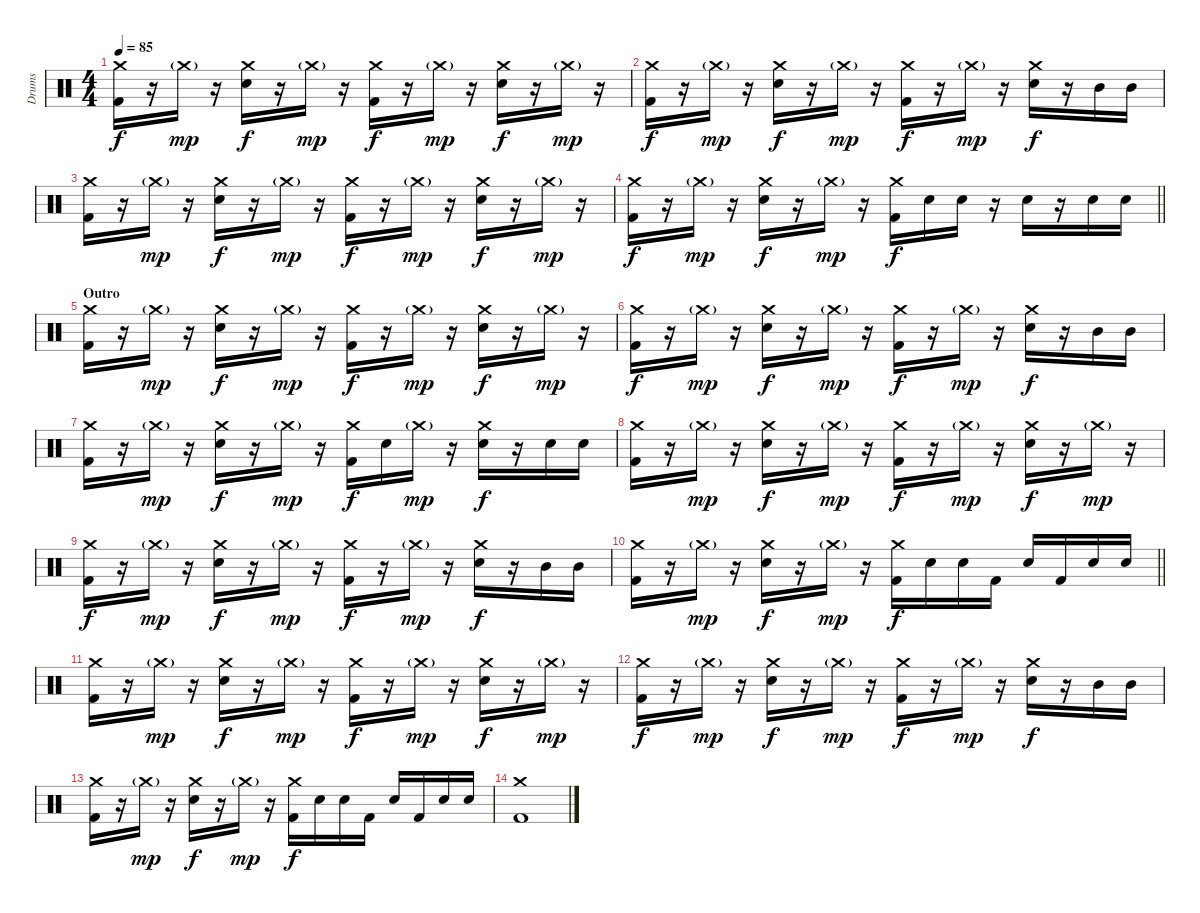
\track ("Drums" "Drums") {instrument percussion}
\staff {score}
\articulation defaults
\ts (4 4)
\tempo 85
\clef neutral
\ks c
("Kick (hit) 2" "Crash medium (hit)").16{dy f} r.16 "Crash medium (hit)"{g}.16{dy mp} r.16 ("Electric Snare (hit)" "Crash medium (hit)").16{dy f} r.16 "Crash medium (hit)"{g}.16{dy mp} r.16 ("Kick (hit) 2" "Crash medium (hit)").16{dy f} r.16 "Crash medium (hit)"{g}.16{dy mp} r.16 ("Electric Snare (hit)" "Crash medium (hit)").16{dy f} r.16 "Crash medium (hit)"{g}.16{dy mp} r.16 |
("Kick (hit) 2" "Crash medium (hit)").16{dy f} r.16 "Crash medium (hit)"{g}.16{dy mp} r.16 ("Electric Snare (hit)" "Crash medium (hit)").16{dy f} r.16 "Crash medium (hit)"{g}.16{dy mp} r.16 ("Kick (hit) 2" "Crash medium (hit)").16{dy f} r.16 "Crash medium (hit)"{g}.16{dy mp} r.16 ("Electric Snare (hit)" "Crash medium (hit)").16{dy f} r.16 "Mid Tom (hit)".16 "Mid Tom (hit)".16 |
("Kick (hit) 2" "Crash medium (hit)").16 r.16 "Crash medium (hit)"{g}.16{dy mp} r.16 ("Electric Snare (hit)" "Crash medium (hit)").16{dy f} r.16 "Crash medium (hit)"{g}.16{dy mp} r.16 ("Kick (hit) 2" "Crash medium (hit)").16{dy f} r.16 "Crash medium (hit)"{g}.16{dy mp} r.16 ("Electric Snare (hit)" "Crash medium (hit)").16{dy f} r.16 "Crash medium (hit)"{g}.16{dy mp} r.16 |
\barLineRight lightlight
("Kick (hit) 2" "Crash medium (hit)").16{dy f} r.16 "Crash medium (hit)"{g}.16{dy mp} r.16 ("Electric Snare (hit)" "Crash medium (hit)").16{dy f} r.16 "Crash medium (hit)"{g}.16{dy mp} r.16 ("Kick (hit) 2" "Crash medium (hit)").16{dy f} "Electric Snare (hit)".16 "Electric Snare (hit)".16 r.16 "Electric Snare (hit)".16 r.16 "Electric Snare (hit)".16 "Electric Snare (hit)".16 |
\section ("" "Outro")
("Kick (hit) 2" "Crash medium (hit)").16 r.16 "Crash medium (hit)"{g}.16{dy mp} r.16 ("Electric Snare (hit)" "Crash medium (hit)").16{dy f} r.16 "Crash medium (hit)"{g}.16{dy mp} r.16 ("Kick (hit) 2" "Crash medium (hit)").16{dy f} r.16 "Crash medium (hit)"{g}.16{dy mp} r.16 ("Electric Snare (hit)" "Crash medium (hit)").16{dy f} r.16 "Crash medium (hit)"{g}.16{dy mp} r.16 |
("Kick (hit) 2" "Crash medium (hit)").16{dy f} r.16 "Crash medium (hit)"{g}.16{dy mp} r.16 ("Electric Snare (hit)" "Crash medium (hit)").16{dy f} r.16 "Crash medium (hit)"{g}.16{dy mp} r.16 ("Kick (hit) 2" "Crash medium (hit)").16{dy f} r.16 "Crash medium (hit)"{g}.16{dy mp} r.16 ("Electric Snare (hit)" "Crash medium (hit)").16{dy f} r.16 "Mid Tom (hit)".16 "Mid Tom (hit)".16 |
("Kick (hit) 2" "Crash medium (hit)").16 r.16 "Crash medium (hit)"{g}.16{dy mp} r.16 ("Electric Snare (hit)" "Crash medium (hit)").16{dy f} r.16 "Crash medium (hit)"{g}.16{dy mp} r.16 ("Kick (hit) 2" "Crash medium (hit)").16{dy f} "Electric Snare (hit)".16 "Crash medium (hit)"{g}.16{dy mp} r.16 ("Electric Snare (hit)" "Crash medium (hit)").16{dy f} r.16 "Electric Snare (hit)".16 "Electric Snare (hit)".16 |
("Kick (hit) 2" "Crash medium (hit)").16 r.16 "Crash medium (hit)"{g}.16{dy mp} r.16 ("Electric Snare (hit)" "Crash medium (hit)").16{dy f} r.16 "Crash medium (hit)"{g}.16{dy mp} r.16 ("Kick (hit) 2" "Crash medium (hit)").16{dy f} r.16 "Crash medium (hit)"{g}.16{dy mp} r.16 ("Electric Snare (hit)" "Crash medium (hit)").16{dy f} r.16 "Crash medium (hit)"{g}.16{dy mp} r.16 |
("Kick (hit) 2" "Crash medium (hit)").16{dy f} r.16 "Crash medium (hit)"{g}.16{dy mp} r.16 ("Electric Snare (hit)" "Crash medium (hit)").16{dy f} r.16 "Crash medium (hit)"{g}.16{dy mp} r.16 ("Kick (hit) 2" "Crash medium (hit)").16{dy f} r.16 "Crash medium (hit)"{g}.16{dy mp} r.16 ("Electric Snare (hit)" "Crash medium (hit)").16{dy f} r.16 "Mid Tom (hit)".16 "Mid Tom (hit)".16 |
\barLineRight lightlight
("Kick (hit) 2" "Crash medium (hit)").16 r.16 "Crash medium (hit)"{g}.16{dy mp} r.16 ("Electric Snare (hit)" "Crash medium (hit)").16{dy f} r.16 "Crash medium (hit)"{g}.16{dy mp} r.16 ("Kick (hit) 2" "Crash medium (hit)").16{dy f} "Electric Snare (hit)".16 "Electric Snare (hit)".16 "Kick (hit) 2".16 "Electric Snare (hit)".16 "Kick (hit) 2".16 "Electric Snare (hit)".16 "Electric Snare (hit)".16 |
\section ("" "")
("Kick (hit) 2" "Crash medium (hit)").16 r.16 "Crash medium (hit)"{g}.16{dy mp} r.16 ("Electric Snare (hit)" "Crash medium (hit)").16{dy f} r.16 "Crash medium (hit)"{g}.16{dy mp} r.16 ("Kick (hit) 2" "Crash medium (hit)").16{dy f} r.16 "Crash medium (hit)"{g}.16{dy mp} r.16 ("Electric Snare (hit)" "Crash medium (hit)").16{dy f} r.16 "Crash medium (hit)"{g}.16{dy mp} r.16 |
("Kick (hit) 2" "Crash medium (hit)").16{dy f} r.16 "Crash medium (hit)"{g}.16{dy mp} r.16 ("Electric Snare (hit)" "Crash medium (hit)").16{dy f} r.16 "Crash medium (hit)"{g}.16{dy mp} r.16 ("Kick (hit) 2" "Crash medium (hit)").16{dy f} r.16 "Crash medium (hit)"{g}.16{dy mp} r.16 ("Electric Snare (hit)" "Crash medium (hit)").16{dy f} r.16 "Mid Tom (hit)".16 "Mid Tom (hit)".16 |
("Kick (hit) 2" "Crash medium (hit)").16 r.16 "Crash medium (hit)"{g}.16{dy mp} r.16 ("Electric Snare (hit)" "Crash medium (hit)").16{dy f} r.16 "Crash medium (hit)"{g}.16{dy mp} r.16 ("Kick (hit) 2" "Crash medium (hit)").16{dy f} "Electric Snare (hit)".16 "Electric Snare (hit)".16 "Kick (hit) 2".16 "Electric Snare (hit)".16 "Kick (hit) 2".16 "Electric Snare (hit)".16 "Electric Snare (hit)".16 |
("Crash medium (hit)" "Kick (hit) 2").1
